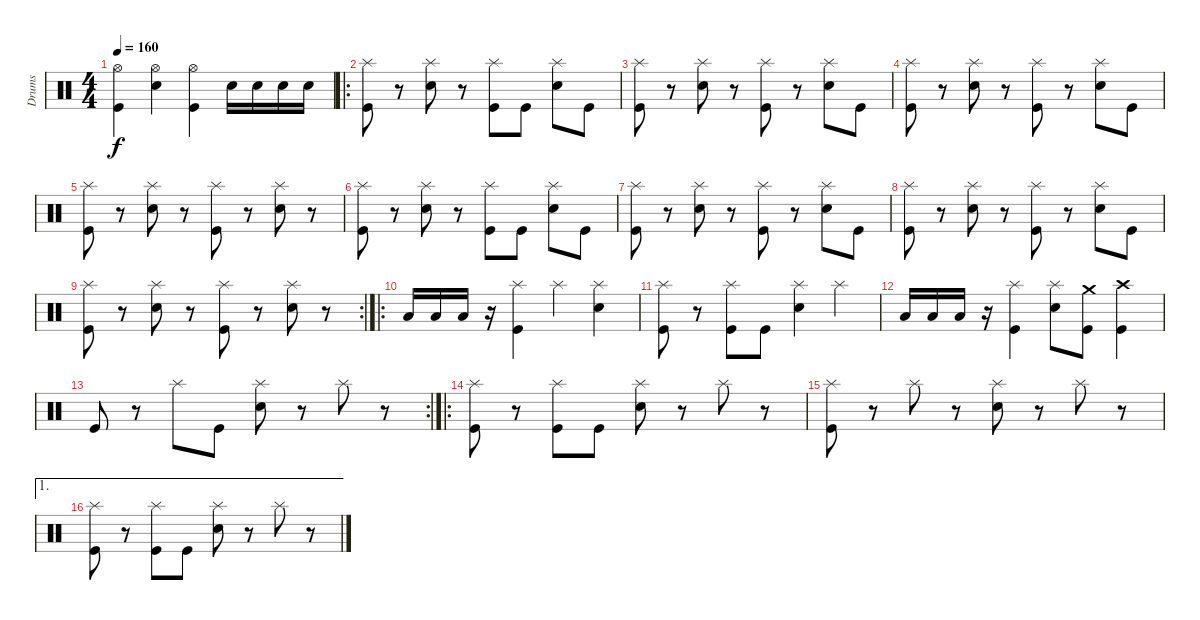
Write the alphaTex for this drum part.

\track ("Drums" "Drums") {instrument percussion}
\staff {score}
\articulation defaults
\ts (4 4)
\tempo 160
\clef neutral
\ks c
("Kick (hit)" "Hi-Hat (open)").4{dy f} ("Electric Snare (hit)" "Hi-Hat (open)").4 ("Kick (hit)" "Hi-Hat (open)").4 "Electric Snare (hit)".16 "Electric Snare (hit)".16 "Electric Snare (hit)".16 "Electric Snare (hit)".16 |
\ro
("Kick (hit)" "Splash (hit)").8 r.8 ("Electric Snare (hit)" "Splash (hit)").8 r.8 ("Kick (hit)" "Splash (hit)").8 "Kick (hit)".8 ("Electric Snare (hit)" "Splash (hit)").8 "Kick (hit)".8 |
("Kick (hit)" "Splash (hit)").8 r.8 ("Electric Snare (hit)" "Splash (hit)").8 r.8 ("Kick (hit)" "Splash (hit)").8 r.8 ("Electric Snare (hit)" "Splash (hit)").8 "Kick (hit)".8 |
("Kick (hit)" "Splash (hit)").8 r.8 ("Electric Snare (hit)" "Splash (hit)").8 r.8 ("Kick (hit)" "Splash (hit)").8 r.8 ("Electric Snare (hit)" "Splash (hit)").8 "Kick (hit)".8 |
("Kick (hit)" "Splash (hit)").8 r.8 ("Electric Snare (hit)" "Splash (hit)").8 r.8 ("Kick (hit)" "Splash (hit)").8 r.8 ("Electric Snare (hit)" "Splash (hit)").8 r.8 |
("Kick (hit)" "Splash (hit)").8 r.8 ("Electric Snare (hit)" "Splash (hit)").8 r.8 ("Kick (hit)" "Splash (hit)").8 "Kick (hit)".8 ("Electric Snare (hit)" "Splash (hit)").8 "Kick (hit)".8 |
("Kick (hit)" "Splash (hit)").8 r.8 ("Electric Snare (hit)" "Splash (hit)").8 r.8 ("Kick (hit)" "Splash (hit)").8 r.8 ("Electric Snare (hit)" "Splash (hit)").8 "Kick (hit)".8 |
("Kick (hit)" "Splash (hit)").8 r.8 ("Electric Snare (hit)" "Splash (hit)").8 r.8 ("Kick (hit)" "Splash (hit)").8 r.8 ("Electric Snare (hit)" "Splash (hit)").8 "Kick (hit)".8 |
\rc 2
("Kick (hit)" "Splash (hit)").8 r.8 ("Electric Snare (hit)" "Splash (hit)").8 r.8 ("Kick (hit)" "Splash (hit)").8 r.8 ("Electric Snare (hit)" "Splash (hit)").8 r.8 |
\ro "Low Floor Tom (hit)".16 "Low Floor Tom (hit)".16 "Low Floor Tom (hit)".16
r.16 ("Kick (hit)" "Splash (hit)").4 "Splash (hit)".4 ("Electric Snare (hit)" "Splash (hit)").4 |
("Kick (hit)" "Splash (hit)").8 r.8 ("Kick (hit)" "Splash (hit)").8 "Kick (hit)".8 ("Electric Snare (hit)" "Splash (hit)").4 "Splash (hit)".4 |
"Low Floor Tom (hit)".16 "Low Floor Tom (hit)".16 "Low Floor Tom (hit)".16 r.16 ("Kick (hit)" "Splash (hit)").4 ("Electric Snare (hit)" "Splash (hit)").8 ("Kick (hit)" "Crash medium (hit)").8 ("Kick (hit)" "Crash high (hit)").4 |
\rc 2 "Kick (hit)".8
r.8 "Splash (hit)".8 "Kick (hit)".8 ("Electric Snare (hit)" "Splash (hit)").8 r.8 "Splash (hit)".8 r.8 |
\ro
("Kick (hit)" "Splash (hit)").8 r.8 ("Kick (hit)" "Splash (hit)").8 "Kick (hit)".8 ("Electric Snare (hit)" "Splash (hit)").8 r.8 "Splash (hit)".8 r.8 |
("Kick (hit)" "Splash (hit)").8 r.8 "Splash (hit)".8 r.8 ("Electric Snare (hit)" "Splash (hit)").8 r.8 "Splash (hit)".8 r.8 |
\ae 1
("Kick (hit)" "Splash (hit)").8 r.8 ("Kick (hit)" "Splash (hit)").8 "Kick (hit)".8 ("Electric Snare (hit)" "Splash (hit)").8 r.8 "Splash (hit)".8 r.8
